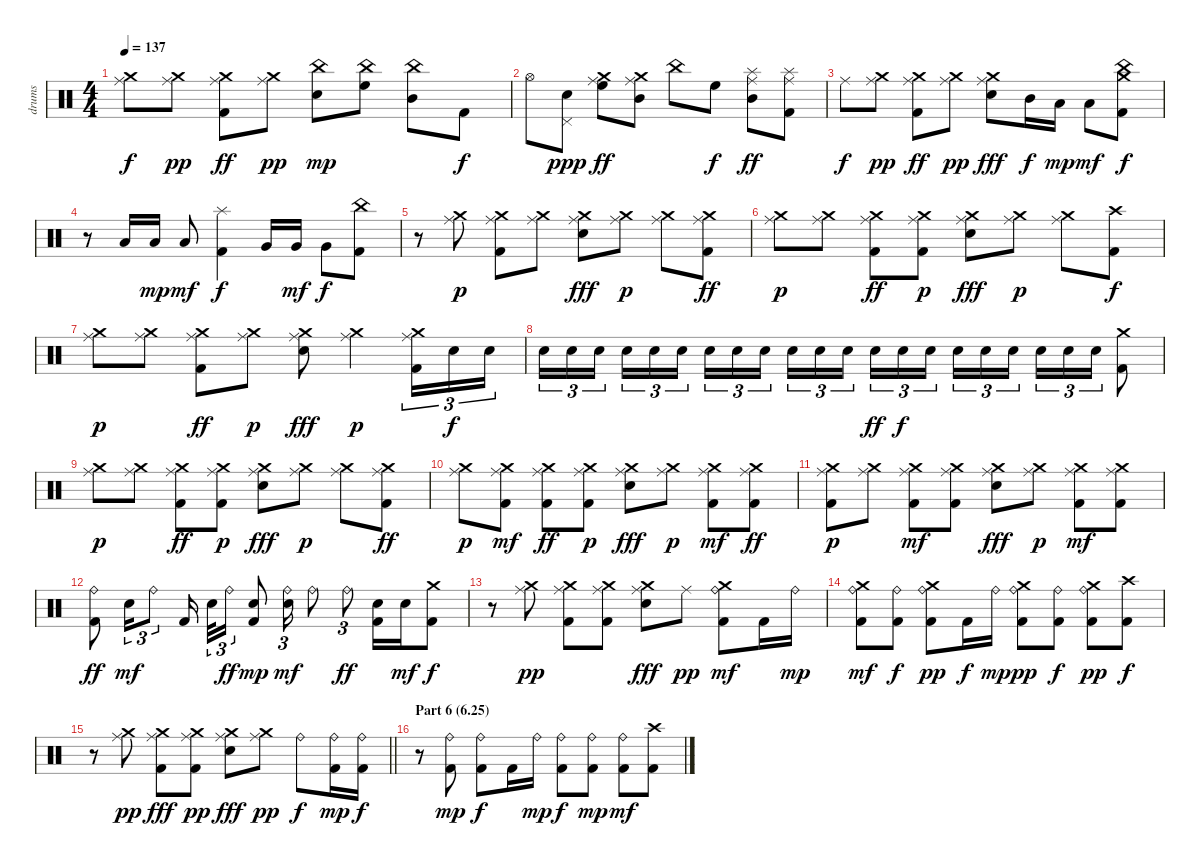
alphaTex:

\track ("drums" "drums") {instrument percussion}
\staff {score}
\articulation defaults
\ts (4 4)
\tempo 137
\clef neutral
\ks c
("Crash medium (hit)" "Ride (middle)").8{dy f} ("Ride (middle)" "Crash medium (hit)").8{dy pp} ("Crash medium (hit)" "Ride (middle)" "Kick (hit) 2").8{dy ff} ("Ride (middle)" "Crash medium (hit)").8{dy pp} ("China (hit)" "Electric Snare (hit)").8{dy mp} ("China (hit)" "High Floor Tom (hit)").8 ("China (hit)" "Mid Tom (hit)").8 "Kick (hit) 2".8{dy f} |
"Hi-Hat (open)".8 ("Pedal Hi-Hat (hit)" "Electric Snare (hit)").8{dy ppp} ("Crash medium (hit)" "Ride (middle)" "High Floor Tom (hit)").8{dy ff} ("Crash medium (hit)" "Ride (middle)" "Mid Tom (hit)").8 "China (hit)".8 "High Floor Tom (hit)".8{dy f} ("Splash (hit)" "Ride (middle)" "Mid Tom (hit)").8{dy ff} ("Splash (hit)" "Ride (middle)" "Kick (hit) 2").8 |
"Ride (middle)".8{dy f} ("Crash medium (hit)" "Ride (middle)").8{dy pp} ("Crash medium (hit)" "Ride (middle)" "Kick (hit) 2").8{dy ff} ("Crash medium (hit)" "Ride (middle)").8{dy pp} ("Crash medium (hit)" "Ride (middle)" "Electric Snare (hit)").8{dy fff} "Mid Tom (hit)".16{dy f} "Low Tom (hit)".16{dy mp} "Low Tom (hit)".8{dy mf} ("Crash medium (hit)" "China (hit)" "Kick (hit) 2").8{dy f} |
r.8 "Low Tom (hit)".16 "Low Tom (hit)".16{dy mp} "Low Tom (hit)".8{dy mf} ("Splash (hit)" "Kick (hit) 2").4{dy f} "Very Low Tom (hit)".16 "Very Low Tom (hit)".16{dy mf} "Very Low Tom (hit)".8{dy f} ("China (hit)" "Kick (hit) 2").8 |
r.8 ("Crash medium (hit)" "Ride (middle)").8{dy p} ("Ride (middle)" "Crash medium (hit)" "Kick (hit) 2").8 ("Crash medium (hit)" "Ride (middle)").8 ("Crash medium (hit)" "Ride (middle)" "Electric Snare (hit)").8{dy fff} ("Crash medium (hit)" "Ride (middle)").8{dy p} ("Crash medium (hit)" "Ride (middle)").8 ("Crash medium (hit)" "Ride (middle)" "Kick (hit) 2").8{dy ff} |
("Crash medium (hit)" "Ride (middle)").8{dy p} ("Crash medium (hit)" "Ride (middle)").8 ("Crash medium (hit)" "Ride (middle)" "Kick (hit) 2").8{dy ff} ("Crash medium (hit)" "Ride (middle)" "Kick (hit) 2").8{dy p} ("Crash medium (hit)" "Ride (middle)" "Electric Snare (hit)").8{dy fff} ("Crash medium (hit)" "Ride (middle)").8{dy p} ("Crash medium (hit)" "Ride (middle)").8 ("Crash high (hit)" "Kick (hit) 2").8{dy f} |
("Crash medium (hit)" "Ride (middle)").8{dy p} ("Crash medium (hit)" "Ride (middle)").8 ("Crash medium (hit)" "Ride (middle)" "Kick (hit) 2").8{dy ff} ("Crash medium (hit)" "Ride (middle)").8{dy p} ("Crash medium (hit)" "Ride (middle)" "Electric Snare (hit)").8{dy fff} ("Ride (middle)" "Crash medium (hit)").4{dy p} ("Ride (middle)" "Crash medium (hit)" "Kick (hit) 2").16{tu (3 2)} "Electric Snare (hit)".16{tu (3 2) dy f} "Electric Snare (hit)".16{tu (3 2)} |
"Electric Snare (hit)".16{tu (3 2)} "Electric Snare (hit)".16{tu (3 2)} "Electric Snare (hit)".16{tu (3 2) beam splitsecondary} "Electric Snare (hit)".16{tu (3 2)} "Electric Snare (hit)".16{tu (3 2)} "Electric Snare (hit)".16{tu (3 2)} "Electric Snare (hit)".16{tu (3 2)} "Electric Snare (hit)".16{tu (3 2)} "Electric Snare (hit)".16{tu (3 2) beam splitsecondary} "Electric Snare (hit)".16{tu (3 2)} "Electric Snare (hit)".16{tu (3 2)} "Electric Snare (hit)".16{tu (3 2)} "Electric Snare (hit)".16{tu (3 2) dy ff} "Electric Snare (hit)".16{tu (3 2) dy f} "Electric Snare (hit)".16{tu (3 2) beam splitsecondary} "Electric Snare (hit)".16{tu (3 2)} "Electric Snare (hit)".16{tu (3 2)} "Electric Snare (hit)".16{tu (3 2)} "Electric Snare (hit)".16{tu (3 2)} "Electric Snare (hit)".16{tu (3 2)} "Electric Snare (hit)".16{tu (3 2)} ("Kick (hit) 2" "Crash medium (hit)").8 |
("Crash medium (hit)" "Ride (middle)").8{dy p} ("Crash medium (hit)" "Ride (middle)").8 ("Crash medium (hit)" "Ride (middle)" "Kick (hit) 2").8{dy ff} ("Crash medium (hit)" "Ride (middle)" "Kick (hit) 2").8{dy p} ("Crash medium (hit)" "Ride (middle)" "Electric Snare (hit)").8{dy fff} ("Crash medium (hit)" "Ride (middle)").8{dy p} ("Crash medium (hit)" "Ride (middle)").8 ("Crash medium (hit)" "Ride (middle)" "Kick (hit) 2").8{dy ff} |
("Crash medium (hit)" "Ride (middle)").8{dy p} ("Crash medium (hit)" "Ride (middle)" "Kick (hit) 2").8{dy mf} ("Crash medium (hit)" "Ride (middle)" "Kick (hit) 2").8{dy ff} ("Crash medium (hit)" "Ride (middle)" "Kick (hit) 2").8{dy p} ("Crash medium (hit)" "Ride (middle)" "Electric Snare (hit)").8{dy fff} ("Crash medium (hit)" "Ride (middle)").8{dy p} ("Crash medium (hit)" "Ride (middle)" "Kick (hit) 2").8{dy mf} ("Crash medium (hit)" "Ride (middle)" "Kick (hit) 2").8{dy ff} |
("Crash medium (hit)" "Ride (middle)" "Kick (hit) 2").8{dy p} ("Crash medium (hit)" "Ride (middle)").8 ("Crash medium (hit)" "Ride (middle)" "Kick (hit) 2").8{dy mf} ("Crash medium (hit)" "Ride (middle)" "Kick (hit) 2").8 ("Crash medium (hit)" "Ride (middle)" "Electric Snare (hit)").8{dy fff} ("Crash medium (hit)" "Ride (middle)").8{dy p} ("Crash medium (hit)" "Ride (middle)" "Kick (hit) 2").8{dy mf} ("Crash medium (hit)" "Ride (middle)" "Kick (hit) 2").8 |
("Kick (hit) 2" "Ride (bell)").8{dy ff} "Electric Snare (hit)".16{tu (3 2) dy mf} "Ride (bell)".8{tu (3 2)} "Kick (hit) 2".16{beam splitsecondary} "Electric Snare (hit)".32{tu (3 2)} "Ride (bell)".16{tu (3 2) dy ff} ("Kick (hit) 2" "Electric Snare (hit)").8{dy mp} ("Electric Snare (hit)" "Ride (bell)").16{tu (3 2) dy mf} "Ride (bell)".8 "Ride (bell)".8{tu (3 2) dy ff} ("Kick (hit) 2" "Electric Snare (hit)").16 "Electric Snare (hit)".16{dy mf} ("Crash medium (hit)" "Kick (hit) 2").8{dy f} |
r.8 ("Ride (middle)" "Crash medium (hit)").8{dy pp} ("Crash medium (hit)" "Ride (middle)" "Kick (hit) 2").8 ("Crash medium (hit)" "Ride (middle)" "Kick (hit) 2").8 ("Crash medium (hit)" "Ride (middle)" "Electric Snare (hit)").8{dy fff} "Ride (middle)".8{dy pp} ("Crash medium (hit)" "Kick (hit) 2" "Ride (bell)").8{dy mf} "Kick (hit) 2".16 "Ride (bell)".16{dy mp} |
("Crash medium (hit)" "Ride (bell)" "Kick (hit) 2").8{dy mf} ("Ride (bell)" "Kick (hit) 2").8{dy f} ("Crash medium (hit)" "Ride (bell)" "Kick (hit) 2").8{dy pp} "Kick (hit) 2".16{dy f} "Ride (bell)".16{dy mp} ("Crash medium (hit)" "Ride (bell)" "Kick (hit) 2").8{dy pp} ("Kick (hit) 2" "Ride (bell)").8{dy f} ("Crash medium (hit)" "Ride (bell)" "Kick (hit) 2").8{dy pp} ("Crash high (hit)" "Kick (hit) 2").8{dy f} |
\barLineRight lightlight
r.8 ("Crash medium (hit)" "Ride (middle)").8{dy pp} ("Crash medium (hit)" "Kick (hit) 2" "Ride (middle)").8{dy fff} ("Ride (middle)" "Crash medium (hit)" "Kick (hit) 2").8{dy pp} ("Crash medium (hit)" "Electric Snare (hit)" "Ride (middle)").8{dy fff} ("Crash medium (hit)" "Ride (middle)").8{dy pp} "Ride (bell)".8{dy f} ("Kick (hit) 2" "Ride (bell)").16{dy mp} ("Kick (hit) 2" "Ride (bell)").16{dy f} |
\section ("" "Part 6 (6.25)")
r.8 ("Ride (bell)" "Kick (hit) 2").8{dy mp} ("Ride (bell)" "Kick (hit) 2").8{dy f} "Kick (hit) 2".16 "Ride (bell)".16{dy mp} ("Kick (hit) 2" "Ride (bell)").8{dy f} ("Ride (bell)" "Kick (hit) 2").8{dy mp} ("Kick (hit) 2" "Ride (bell)").8{dy mf} ("Crash high (hit)" "Kick (hit) 2").8
